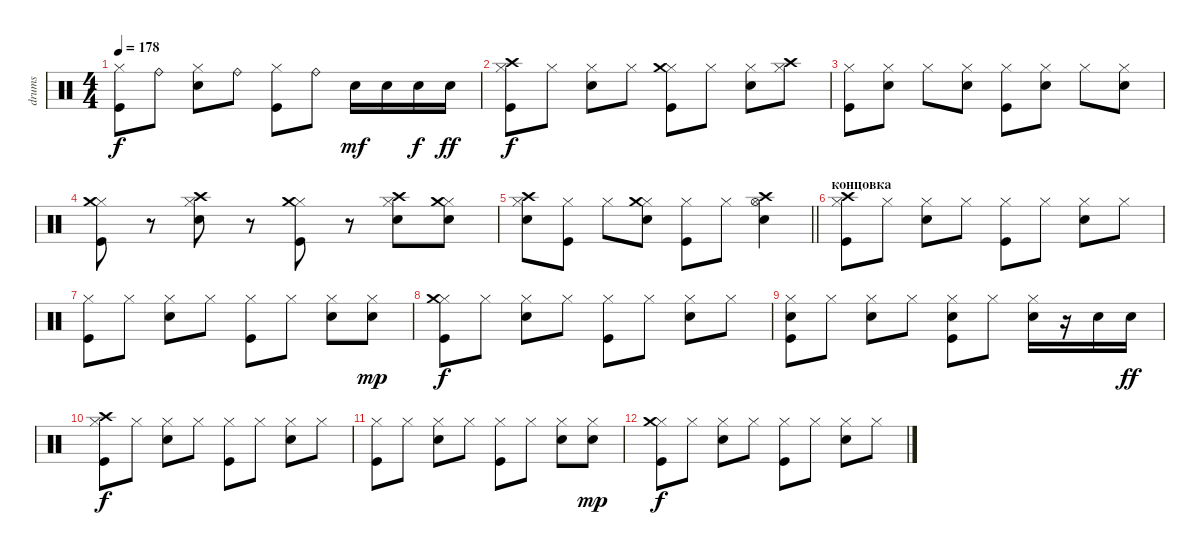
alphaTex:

\track ("drums" "drums") {instrument percussion}
\staff {score}
\articulation defaults
\ts (4 4)
\tempo 178
\clef neutral
\ks c
("Hi-Hat (closed)" "Kick (hit)").8{dy f} "Ride (bell)".8 ("Hi-Hat (closed)" "Electric Snare (hit)").8 "Ride (bell)".8 ("Hi-Hat (closed)" "Kick (hit)").8 "Ride (bell)".8 "Electric Snare (hit)".16{dy mf} "Electric Snare (hit)".16 "Electric Snare (hit)".16{dy f} "Electric Snare (hit)".16{dy ff} |
("Hi-Hat (closed)" "Crash high (hit)" "Kick (hit)").8{dy f} "Hi-Hat (closed)".8 ("Hi-Hat (closed)" "Electric Snare (hit)").8 "Hi-Hat (closed)".8 ("Hi-Hat (closed)" "Crash medium (hit)" "Kick (hit)").8 "Hi-Hat (closed)".8 ("Hi-Hat (closed)" "Electric Snare (hit)").8 ("Hi-Hat (closed)" "Crash high (hit)").8 |
("Hi-Hat (closed)" "Kick (hit)").8 ("Hi-Hat (closed)" "Electric Snare (hit)").8 "Hi-Hat (closed)".8 ("Hi-Hat (closed)" "Electric Snare (hit)").8 ("Hi-Hat (closed)" "Kick (hit)").8 ("Hi-Hat (closed)" "Electric Snare (hit)").8 "Hi-Hat (closed)".8 ("Hi-Hat (closed)" "Electric Snare (hit)").8 |
("Hi-Hat (closed)" "Crash medium (hit)" "Kick (hit)").8 r.8 ("Hi-Hat (closed)" "Crash high (hit)" "Electric Snare (hit)").8 r.8 ("Hi-Hat (closed)" "Crash medium (hit)" "Kick (hit)").8 r.8 ("Hi-Hat (closed)" "Crash high (hit)" "Electric Snare (hit)").8 ("Hi-Hat (closed)" "Crash medium (hit)" "Electric Snare (hit)").8 |
\barLineRight lightlight
("Hi-Hat (closed)" "Electric Snare (hit)" "Crash high (hit)").8 ("Hi-Hat (closed)" "Kick (hit)").8 "Hi-Hat (closed)".8 ("Hi-Hat (closed)" "Electric Snare (hit)" "Crash medium (hit)").8 ("Hi-Hat (closed)" "Kick (hit)").8 "Hi-Hat (closed)".8 ("Crash high (hit)" "Electric Snare (hit)" "Hi-Hat (open)").4 |
\section ("" "концовка")
("Hi-Hat (closed)" "Crash high (hit)" "Kick (hit)").8 "Hi-Hat (closed)".8 ("Hi-Hat (closed)" "Electric Snare (hit)").8 "Hi-Hat (closed)".8 ("Hi-Hat (closed)" "Kick (hit)").8 "Hi-Hat (closed)".8 ("Hi-Hat (closed)" "Electric Snare (hit)").8 "Hi-Hat (closed)".8 |
("Hi-Hat (closed)" "Kick (hit)").8 "Hi-Hat (closed)".8 ("Hi-Hat (closed)" "Electric Snare (hit)").8 "Hi-Hat (closed)".8 ("Hi-Hat (closed)" "Kick (hit)").8 "Hi-Hat (closed)".8 ("Hi-Hat (closed)" "Electric Snare (hit)").8 ("Hi-Hat (closed)" "Electric Snare (hit)").8{dy mp} |
("Hi-Hat (closed)" "Crash medium (hit)" "Kick (hit)").8{dy f} "Hi-Hat (closed)".8 ("Hi-Hat (closed)" "Electric Snare (hit)").8 "Hi-Hat (closed)".8 ("Hi-Hat (closed)" "Kick (hit)").8 "Hi-Hat (closed)".8 ("Hi-Hat (closed)" "Electric Snare (hit)").8 "Hi-Hat (closed)".8 |
("Hi-Hat (closed)" "Electric Snare (hit)" "Kick (hit)").8 "Hi-Hat (closed)".8 ("Hi-Hat (closed)" "Electric Snare (hit)").8 "Hi-Hat (closed)".8 ("Hi-Hat (closed)" "Electric Snare (hit)" "Kick (hit)").8 "Hi-Hat (closed)".8 ("Hi-Hat (closed)" "Electric Snare (hit)").16 r.16 "Electric Snare (hit)".16 "Electric Snare (hit)".16{dy ff} |
("Hi-Hat (closed)" "Crash high (hit)" "Kick (hit)").8{dy f} "Hi-Hat (closed)".8 ("Hi-Hat (closed)" "Electric Snare (hit)").8 "Hi-Hat (closed)".8 ("Hi-Hat (closed)" "Kick (hit)").8 "Hi-Hat (closed)".8 ("Hi-Hat (closed)" "Electric Snare (hit)").8 "Hi-Hat (closed)".8 |
("Hi-Hat (closed)" "Kick (hit)").8 "Hi-Hat (closed)".8 ("Hi-Hat (closed)" "Electric Snare (hit)").8 "Hi-Hat (closed)".8 ("Hi-Hat (closed)" "Kick (hit)").8 "Hi-Hat (closed)".8 ("Hi-Hat (closed)" "Electric Snare (hit)").8 ("Hi-Hat (closed)" "Electric Snare (hit)").8{dy mp} |
("Hi-Hat (closed)" "Crash medium (hit)" "Kick (hit)").8{dy f} "Hi-Hat (closed)".8 ("Hi-Hat (closed)" "Electric Snare (hit)").8 "Hi-Hat (closed)".8 ("Hi-Hat (closed)" "Kick (hit)").8 "Hi-Hat (closed)".8 ("Hi-Hat (closed)" "Electric Snare (hit)").8 "Hi-Hat (closed)".8
